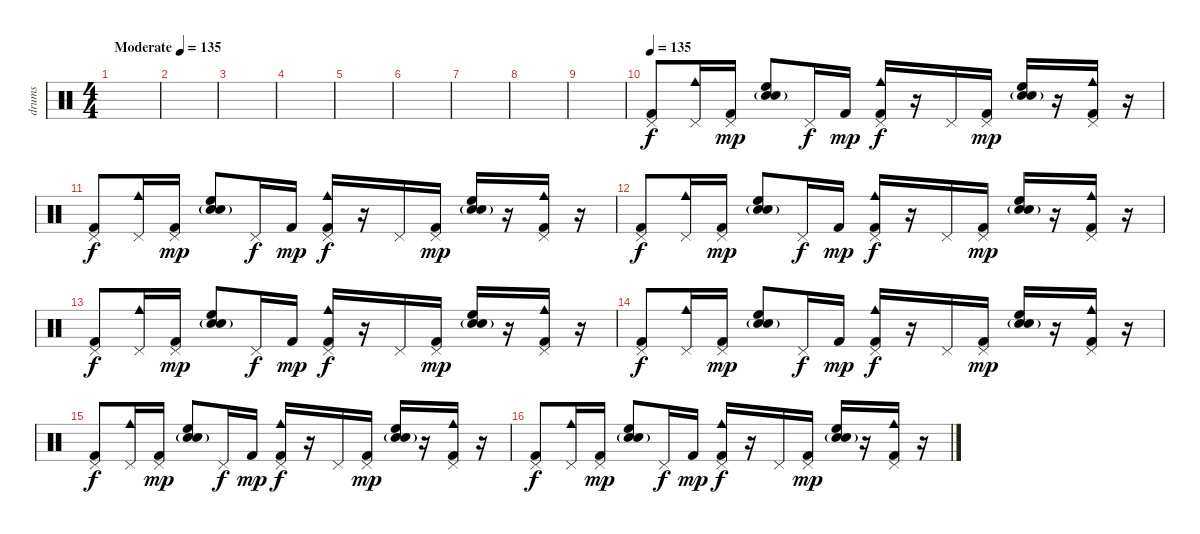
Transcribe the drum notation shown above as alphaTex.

\track ("drums" "drums") {instrument percussion}
\staff {score}
\articulation defaults
\ts (4 4)
\tempo (135 "Moderate")
\clef neutral
\ks c
|
|
|
|
|
|
|
|
|
\tempo 135
("Pedal Hi-Hat (hit)" "Kick (hit) 2").8 ("Cowbell medium (hit)" "Pedal Hi-Hat (hit)").16 ("Pedal Hi-Hat (hit)" "Kick (hit) 2").16{dy mp} ("Snare (hit) 2"{g} "Hand Clap (hit)"{g} "High Floor Tom (hit)").8 "Pedal Hi-Hat (hit)".16{dy f} "Kick (hit) 2".16{dy mp} ("Cowbell medium (hit)" "Pedal Hi-Hat (hit)" "Kick (hit) 2").16{dy f} r.16 "Pedal Hi-Hat (hit)".16 ("Pedal Hi-Hat (hit)" "Kick (hit) 2").16{dy mp} ("Snare (hit) 2"{g} "Hand Clap (hit)"{g} "High Floor Tom (hit)").16 r.16 ("Cowbell medium (hit)" "Pedal Hi-Hat (hit)" "Kick (hit) 2").16 r.16 |
("Pedal Hi-Hat (hit)" "Kick (hit) 2").8{dy f} ("Cowbell medium (hit)" "Pedal Hi-Hat (hit)").16 ("Pedal Hi-Hat (hit)" "Kick (hit) 2").16{dy mp} ("Snare (hit) 2"{g} "Hand Clap (hit)"{g} "High Floor Tom (hit)").8 "Pedal Hi-Hat (hit)".16{dy f} "Kick (hit) 2".16{dy mp} ("Cowbell medium (hit)" "Pedal Hi-Hat (hit)" "Kick (hit) 2").16{dy f} r.16 "Pedal Hi-Hat (hit)".16 ("Pedal Hi-Hat (hit)" "Kick (hit) 2").16{dy mp} ("Snare (hit) 2"{g} "Hand Clap (hit)"{g} "High Floor Tom (hit)").16 r.16 ("Cowbell medium (hit)" "Pedal Hi-Hat (hit)" "Kick (hit) 2").16 r.16 |
("Pedal Hi-Hat (hit)" "Kick (hit) 2").8{dy f} ("Cowbell medium (hit)" "Pedal Hi-Hat (hit)").16 ("Pedal Hi-Hat (hit)" "Kick (hit) 2").16{dy mp} ("Snare (hit) 2"{g} "Hand Clap (hit)"{g} "High Floor Tom (hit)").8 "Pedal Hi-Hat (hit)".16{dy f} "Kick (hit) 2".16{dy mp} ("Cowbell medium (hit)" "Pedal Hi-Hat (hit)" "Kick (hit) 2").16{dy f} r.16 "Pedal Hi-Hat (hit)".16 ("Pedal Hi-Hat (hit)" "Kick (hit) 2").16{dy mp} ("Snare (hit) 2"{g} "Hand Clap (hit)"{g} "High Floor Tom (hit)").16 r.16 ("Cowbell medium (hit)" "Pedal Hi-Hat (hit)" "Kick (hit) 2").16 r.16 |
("Pedal Hi-Hat (hit)" "Kick (hit) 2").8{dy f} ("Cowbell medium (hit)" "Pedal Hi-Hat (hit)").16 ("Pedal Hi-Hat (hit)" "Kick (hit) 2").16{dy mp} ("Electric Snare (hit)"{g} "Hand Clap (hit)"{g} "High Floor Tom (hit)").8 "Pedal Hi-Hat (hit)".16{dy f} "Kick (hit) 2".16{dy mp} ("Cowbell medium (hit)" "Pedal Hi-Hat (hit)" "Kick (hit) 2").16{dy f} r.16 "Pedal Hi-Hat (hit)".16 ("Pedal Hi-Hat (hit)" "Kick (hit) 2").16{dy mp} ("Electric Snare (hit)"{g} "Hand Clap (hit)"{g} "High Floor Tom (hit)").16 r.16 ("Cowbell medium (hit)" "Pedal Hi-Hat (hit)" "Kick (hit) 2").16 r.16 |
("Pedal Hi-Hat (hit)" "Kick (hit) 2").8{dy f} ("Cowbell medium (hit)" "Pedal Hi-Hat (hit)").16 ("Pedal Hi-Hat (hit)" "Kick (hit) 2").16{dy mp} ("Electric Snare (hit)"{g} "Hand Clap (hit)"{g} "High Floor Tom (hit)").8 "Pedal Hi-Hat (hit)".16{dy f} "Kick (hit) 2".16{dy mp} ("Cowbell medium (hit)" "Pedal Hi-Hat (hit)" "Kick (hit) 2").16{dy f} r.16 "Pedal Hi-Hat (hit)".16 ("Pedal Hi-Hat (hit)" "Kick (hit) 2").16{dy mp} ("Electric Snare (hit)"{g} "Hand Clap (hit)"{g} "High Floor Tom (hit)").16 r.16 ("Cowbell medium (hit)" "Pedal Hi-Hat (hit)" "Kick (hit) 2").16 r.16 |
("Pedal Hi-Hat (hit)" "Kick (hit) 2").8{dy f} ("Cowbell medium (hit)" "Pedal Hi-Hat (hit)").16 ("Pedal Hi-Hat (hit)" "Kick (hit) 2").16{dy mp} ("Electric Snare (hit)"{g} "Hand Clap (hit)"{g} "High Floor Tom (hit)").8 "Pedal Hi-Hat (hit)".16{dy f} "Kick (hit) 2".16{dy mp} ("Cowbell medium (hit)" "Pedal Hi-Hat (hit)" "Kick (hit) 2").16{dy f} r.16 "Pedal Hi-Hat (hit)".16 ("Pedal Hi-Hat (hit)" "Kick (hit) 2").16{dy mp} ("Electric Snare (hit)"{g} "Hand Clap (hit)"{g} "High Floor Tom (hit)").16 r.16 ("Cowbell medium (hit)" "Pedal Hi-Hat (hit)" "Kick (hit) 2").16 r.16 |
("Pedal Hi-Hat (hit)" "Kick (hit) 2").8{dy f} ("Cowbell medium (hit)" "Pedal Hi-Hat (hit)").16 ("Pedal Hi-Hat (hit)" "Kick (hit) 2").16{dy mp} ("Electric Snare (hit)"{g} "Hand Clap (hit)"{g} "High Floor Tom (hit)").8 "Pedal Hi-Hat (hit)".16{dy f} "Kick (hit) 2".16{dy mp} ("Cowbell medium (hit)" "Pedal Hi-Hat (hit)" "Kick (hit) 2").16{dy f} r.16 "Pedal Hi-Hat (hit)".16 ("Pedal Hi-Hat (hit)" "Kick (hit) 2").16{dy mp} ("Electric Snare (hit)"{g} "Hand Clap (hit)"{g} "High Floor Tom (hit)").16 r.16 ("Cowbell medium (hit)" "Pedal Hi-Hat (hit)" "Kick (hit) 2").16 r.16
